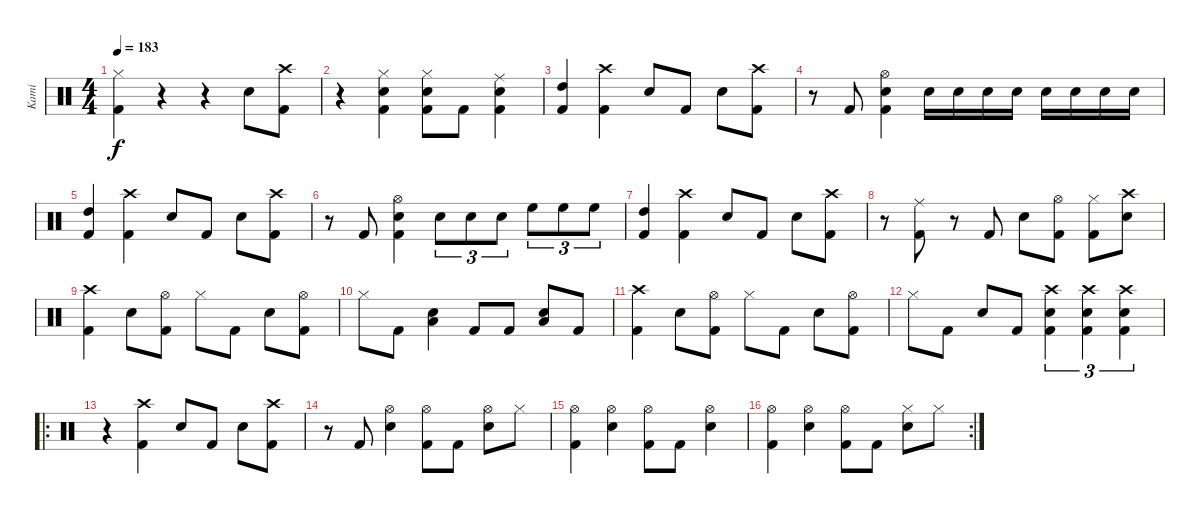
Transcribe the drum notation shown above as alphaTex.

\track ("Kami" "Kami") {instrument percussion}
\staff {score}
\articulation defaults
\ts (4 4)
\tempo 183
\clef neutral
\ks c
("Hi-Hat (closed)" "Kick (hit) 2").4{dy f} r.4 r.4 "Electric Snare (hit)".8 ("Crash high (hit)" "Kick (hit) 2").8 |
r.4 ("Hi-Hat (closed)" "Electric Snare (hit)" "Kick (hit) 2").4 ("Electric Snare (hit)" "Kick (hit) 2" "Hi-Hat (closed)").8 "Kick (hit) 2".8 ("Electric Snare (hit)" "Kick (hit) 2" "Ride (middle)").4 |
("High Tom (hit)" "Kick (hit) 2").4 ("Crash high (hit)" "Kick (hit) 2").4 "Electric Snare (hit)".8 "Kick (hit) 2".8 "Electric Snare (hit)".8 ("Kick (hit) 2" "Crash high (hit)").8 |
r.8 "Kick (hit) 2".8 ("Hi-Hat (open)" "Electric Snare (hit)" "Kick (hit) 2").4 "Electric Snare (hit)".16 "Electric Snare (hit)".16 "Electric Snare (hit)".16 "Electric Snare (hit)".16 "Electric Snare (hit)".16 "Electric Snare (hit)".16 "Electric Snare (hit)".16 "Electric Snare (hit)".16 |
("High Tom (hit)" "Kick (hit) 2").4 ("Crash high (hit)" "Kick (hit) 2").4 "Electric Snare (hit)".8 "Kick (hit) 2".8 "Electric Snare (hit)".8 ("Kick (hit) 2" "Crash high (hit)").8 |
r.8 "Kick (hit) 2".8 ("Hi-Hat (open)" "Electric Snare (hit)" "Kick (hit) 2").4 "Electric Snare (hit)".8{tu (3 2)} "Electric Snare (hit)".8{tu (3 2)} "Electric Snare (hit)".8{tu (3 2)} "High Floor Tom (hit)".8{tu (3 2)} "High Floor Tom (hit)".8{tu (3 2)} "High Floor Tom (hit)".8{tu (3 2)} |
("High Tom (hit)" "Kick (hit) 2").4 ("Crash high (hit)" "Kick (hit) 2").4 "Electric Snare (hit)".8 "Kick (hit) 2".8 "Electric Snare (hit)".8 ("Kick (hit) 2" "Crash high (hit)").8 |
r.8 ("Ride (middle)" "Kick (hit) 2").8 r.8 "Kick (hit) 2".8 "Electric Snare (hit)".8 ("Hi-Hat (open)" "Kick (hit) 2").8 ("Hi-Hat (closed)" "Kick (hit) 2").8 ("Crash high (hit)" "Electric Snare (hit)").8 |
("Crash high (hit)" "Kick (hit) 2").4 "Electric Snare (hit)".8 ("Hi-Hat (open)" "Kick (hit) 2").8 "Hi-Hat (closed)".8 "Kick (hit) 2".8 "Electric Snare (hit)".8 ("Hi-Hat (open)" "Kick (hit) 2").8 |
"Hi-Hat (closed)".8 "Kick (hit) 2".8 ("Electric Snare (hit)" "Low Tom (hit)").4 "Kick (hit) 2".8 "Kick (hit) 2".8 ("Electric Snare (hit)" "Low Tom (hit)").8 "Kick (hit) 2".8 |
("Crash high (hit)" "Kick (hit) 2").4 "Electric Snare (hit)".8 ("Hi-Hat (open)" "Kick (hit) 2").8 "Hi-Hat (closed)".8 "Kick (hit) 2".8 "Electric Snare (hit)".8 ("Hi-Hat (open)" "Kick (hit) 2").8 |
"Hi-Hat (closed)".8 "Kick (hit) 2".8 "Electric Snare (hit)".8 "Kick (hit) 2".8 ("Crash high (hit)" "Electric Snare (hit)" "Kick (hit) 2").4{tu (3 2)} ("Crash high (hit)" "Electric Snare (hit)" "Kick (hit) 2").4{tu (3 2)} ("Crash high (hit)" "Electric Snare (hit)" "Kick (hit) 2").4{tu (3 2)} |
\ro
r.4 ("Crash high (hit)" "Kick (hit) 2").4 "Electric Snare (hit)".8 "Kick (hit) 2".8 "Electric Snare (hit)".8 ("Crash high (hit)" "Kick (hit) 2").8 |
r.8 "Kick (hit) 2".8 ("Hi-Hat (open)" "Electric Snare (hit)").4 ("Hi-Hat (open)" "Kick (hit) 2").8 "Kick (hit) 2".8 ("Hi-Hat (open)" "Electric Snare (hit)").8 "Hi-Hat (closed)".8 |
("Hi-Hat (open)" "Kick (hit) 2").4 ("Hi-Hat (open)" "Electric Snare (hit)").4 ("Hi-Hat (open)" "Kick (hit) 2").8 "Kick (hit) 2".8 ("Hi-Hat (open)" "Electric Snare (hit)").4 |
\rc 2
("Hi-Hat (open)" "Kick (hit) 2").4 ("Hi-Hat (open)" "Electric Snare (hit)").4 ("Hi-Hat (open)" "Kick (hit) 2").8 "Kick (hit) 2".8 ("Hi-Hat (closed)" "Electric Snare (hit)").8 "Hi-Hat (closed)".8
